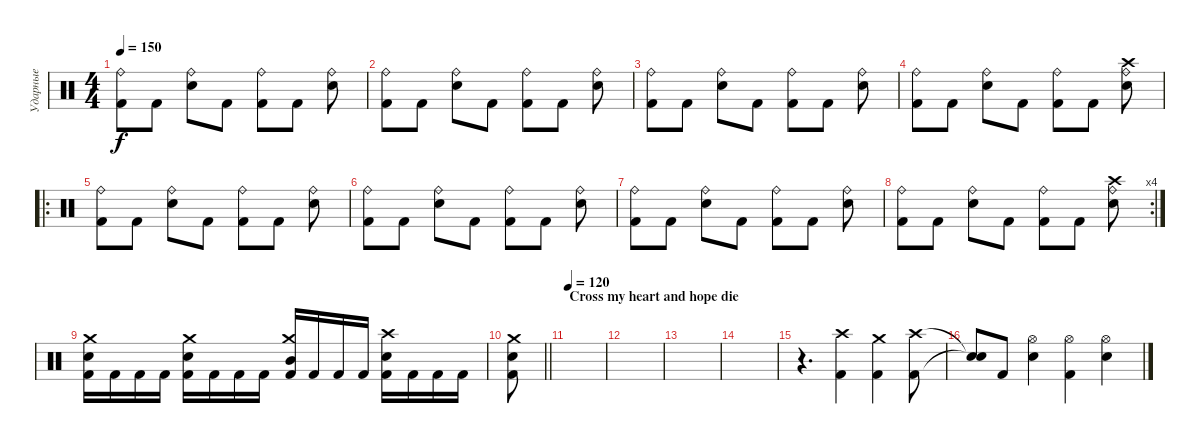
\track ("Ударные" "Ударные") {instrument percussion}
\staff {score}
\articulation defaults
\ts (4 4)
\tempo 150
\clef neutral
\ks c
("Ride (bell)" "Kick (hit) 2").8{dy f} "Kick (hit) 2".8 ("Ride (bell)" "Snare (hit) 2").8 "Kick (hit) 2".8 ("Ride (bell)" "Kick (hit) 2").8 "Kick (hit) 2".8 ("Ride (bell)" "Snare (hit) 2").8 |
("Ride (bell)" "Kick (hit) 2").8 "Kick (hit) 2".8 ("Ride (bell)" "Snare (hit) 2").8 "Kick (hit) 2".8 ("Ride (bell)" "Kick (hit) 2").8 "Kick (hit) 2".8 ("Ride (bell)" "Snare (hit) 2").8 |
("Ride (bell)" "Kick (hit) 2").8 "Kick (hit) 2".8 ("Ride (bell)" "Snare (hit) 2").8 "Kick (hit) 2".8 ("Ride (bell)" "Kick (hit) 2").8 "Kick (hit) 2".8 ("Ride (bell)" "Snare (hit) 2").8 |
("Ride (bell)" "Kick (hit) 2").8 "Kick (hit) 2".8 ("Ride (bell)" "Snare (hit) 2").8 "Kick (hit) 2".8 ("Ride (bell)" "Kick (hit) 2").8 "Kick (hit) 2".8 ("Crash high (hit)" "Ride (bell)" "Snare (hit) 2").8 |
\ro
("Ride (bell)" "Kick (hit) 2").8 "Kick (hit) 2".8 ("Ride (bell)" "Snare (hit) 2").8 "Kick (hit) 2".8 ("Ride (bell)" "Kick (hit) 2").8 "Kick (hit) 2".8 ("Ride (bell)" "Snare (hit) 2").8 |
("Ride (bell)" "Kick (hit) 2").8 "Kick (hit) 2".8 ("Ride (bell)" "Snare (hit) 2").8 "Kick (hit) 2".8 ("Ride (bell)" "Kick (hit) 2").8 "Kick (hit) 2".8 ("Ride (bell)" "Snare (hit) 2").8 |
("Ride (bell)" "Kick (hit) 2").8 "Kick (hit) 2".8 ("Ride (bell)" "Snare (hit) 2").8 "Kick (hit) 2".8 ("Ride (bell)" "Kick (hit) 2").8 "Kick (hit) 2".8 ("Ride (bell)" "Snare (hit) 2").8 |
\rc 4
("Ride (bell)" "Kick (hit) 2").8 "Kick (hit) 2".8 ("Ride (bell)" "Snare (hit) 2").8 "Kick (hit) 2".8 ("Ride (bell)" "Kick (hit) 2").8 "Kick (hit) 2".8 ("Crash high (hit)" "Ride (bell)" "Snare (hit) 2").8 |
("Crash medium (hit)" "Snare (hit) 2" "Kick (hit) 2").16 "Kick (hit) 2".16 "Kick (hit) 2".16 "Kick (hit) 2".16 ("Crash medium (hit)" "Snare (hit) 2" "Kick (hit) 2").16 "Kick (hit) 2".16 "Kick (hit) 2".16 "Kick (hit) 2".16 ("Crash medium (hit)" "Mid Tom (hit)" "Kick (hit) 2").16 "Kick (hit) 2".16 "Kick (hit) 2".16 "Kick (hit) 2".16 ("Crash high (hit)" "Snare (hit) 2" "Kick (hit) 2").16 "Kick (hit) 2".16 "Kick (hit) 2".16 "Kick (hit) 2".16 |
\barLineRight lightlight
("Crash medium (hit)" "Snare (hit) 2" "Kick (hit) 2").8 |
\section ("" "Cross my heart and hope die")
\tempo 120
|
|
|
|
r.4{d volume 8} ("Kick (hit) 2" "Crash high (hit)").4 ("Kick (hit) 2" "Crash medium (hit)").4 ("Kick (hit) 2" "Crash high (hit)").8 |
("Snare (hit)"{t} "Snare (hit)"{t}).8 "Kick (hit) 2".8 ("Hi-Hat (open)" "Snare (hit) 2").4 ("Kick (hit) 2" "Hi-Hat (open)").4 ("Hi-Hat (open)" "Snare (hit) 2").4
